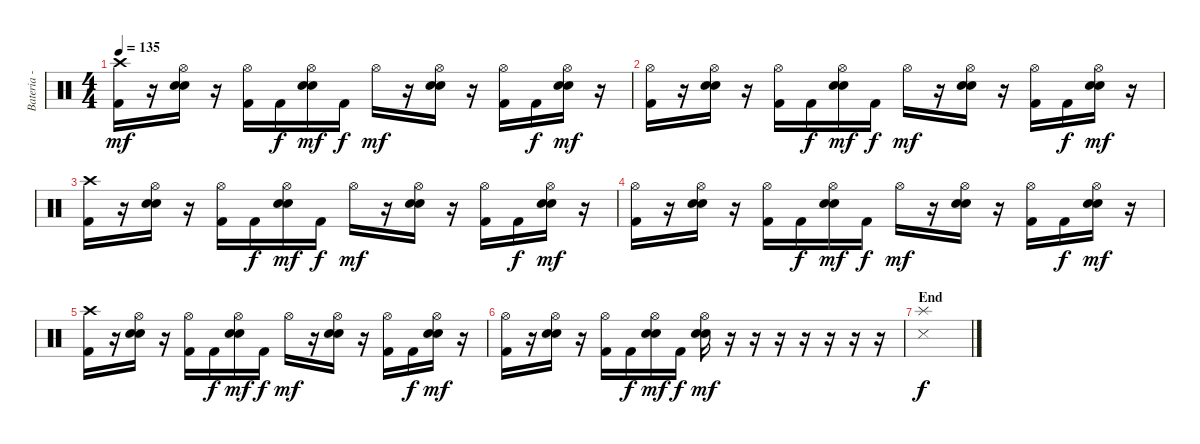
\track ("Bateria - Larzon" "Bateria - ") {instrument percussion}
\staff {score}
\articulation defaults
\ts (4 4)
\tempo 135
\clef neutral
\ks c
("Kick (hit) 2" "Crash high (hit)").16{dy mf} r.16 ("Electric Snare (hit)" "Electric Snare (hit)" "Hi-Hat (open)").16 r.16 ("Kick (hit) 2" "Hi-Hat (open)").16 "Kick (hit) 2".16{dy f} ("Electric Snare (hit)" "Electric Snare (hit)" "Hi-Hat (open)").16{dy mf} "Kick (hit) 2".16{dy f} "Hi-Hat (open)".16{dy mf} r.16 ("Electric Snare (hit)" "Electric Snare (hit)" "Hi-Hat (open)").16 r.16 ("Kick (hit) 2" "Hi-Hat (open)").16 "Kick (hit) 2".16{dy f} ("Electric Snare (hit)" "Electric Snare (hit)" "Hi-Hat (open)").16{dy mf} r.16 |
("Kick (hit) 2" "Hi-Hat (open)").16 r.16 ("Electric Snare (hit)" "Electric Snare (hit)" "Hi-Hat (open)").16 r.16 ("Kick (hit) 2" "Hi-Hat (open)").16 "Kick (hit) 2".16{dy f} ("Electric Snare (hit)" "Electric Snare (hit)" "Hi-Hat (open)").16{dy mf} "Kick (hit) 2".16{dy f} "Hi-Hat (open)".16{dy mf} r.16 ("Electric Snare (hit)" "Electric Snare (hit)" "Hi-Hat (open)").16 r.16 ("Kick (hit) 2" "Hi-Hat (open)").16 "Kick (hit) 2".16{dy f} ("Electric Snare (hit)" "Electric Snare (hit)" "Hi-Hat (open)").16{dy mf} r.16 |
("Kick (hit) 2" "Crash high (hit)").16 r.16 ("Electric Snare (hit)" "Electric Snare (hit)" "Hi-Hat (open)").16 r.16 ("Kick (hit) 2" "Hi-Hat (open)").16 "Kick (hit) 2".16{dy f} ("Electric Snare (hit)" "Electric Snare (hit)" "Hi-Hat (open)").16{dy mf} "Kick (hit) 2".16{dy f} "Hi-Hat (open)".16{dy mf} r.16 ("Electric Snare (hit)" "Electric Snare (hit)" "Hi-Hat (open)").16 r.16 ("Kick (hit) 2" "Hi-Hat (open)").16 "Kick (hit) 2".16{dy f} ("Electric Snare (hit)" "Electric Snare (hit)" "Hi-Hat (open)").16{dy mf} r.16 |
("Kick (hit) 2" "Hi-Hat (open)").16 r.16 ("Electric Snare (hit)" "Electric Snare (hit)" "Hi-Hat (open)").16 r.16 ("Kick (hit) 2" "Hi-Hat (open)").16 "Kick (hit) 2".16{dy f} ("Electric Snare (hit)" "Electric Snare (hit)" "Hi-Hat (open)").16{dy mf} "Kick (hit) 2".16{dy f} "Hi-Hat (open)".16{dy mf} r.16 ("Electric Snare (hit)" "Electric Snare (hit)" "Hi-Hat (open)").16 r.16 ("Kick (hit) 2" "Hi-Hat (open)").16 "Kick (hit) 2".16{dy f} ("Electric Snare (hit)" "Electric Snare (hit)" "Hi-Hat (open)").16{dy mf} r.16 |
("Kick (hit) 2" "Crash high (hit)").16 r.16 ("Electric Snare (hit)" "Electric Snare (hit)" "Hi-Hat (open)").16 r.16 ("Kick (hit) 2" "Hi-Hat (open)").16 "Kick (hit) 2".16{dy f} ("Electric Snare (hit)" "Electric Snare (hit)" "Hi-Hat (open)").16{dy mf} "Kick (hit) 2".16{dy f} "Hi-Hat (open)".16{dy mf} r.16 ("Electric Snare (hit)" "Electric Snare (hit)" "Hi-Hat (open)").16 r.16 ("Kick (hit) 2" "Hi-Hat (open)").16 "Kick (hit) 2".16{dy f} ("Electric Snare (hit)" "Electric Snare (hit)" "Hi-Hat (open)").16{dy mf} r.16 |
("Kick (hit) 2" "Hi-Hat (open)").16 r.16 ("Electric Snare (hit)" "Electric Snare (hit)" "Hi-Hat (open)").16 r.16 ("Kick (hit) 2" "Hi-Hat (open)").16 "Kick (hit) 2".16{dy f} ("Electric Snare (hit)" "Electric Snare (hit)" "Hi-Hat (open)").16{dy mf} "Kick (hit) 2".16{dy f} ("Electric Snare (hit)" "Electric Snare (hit)" "Hi-Hat (open)").16{dy mf} r.16 r.16 r.16 r.16 r.16 r.16 r.16 |
\section ("" "End")
("Splash (hit)" "Snare (side stick) 3").1{dy f}
